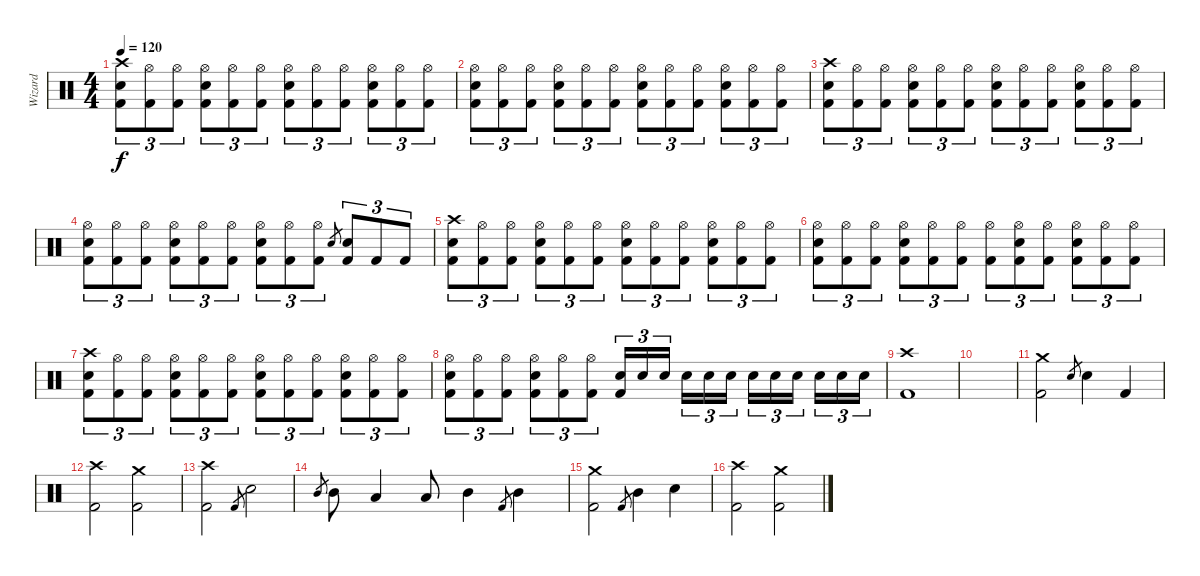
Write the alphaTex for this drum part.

\track ("Wizard" "Wizard") {instrument percussion}
\staff {score}
\articulation defaults
\ts (4 4)
\tempo 120
\clef neutral
\ks c
("Crash high (hit)" "Snare (hit) 2" "Kick (hit) 2").8{tu (3 2) dy f} ("Hi-Hat (open)" "Kick (hit) 2").8{tu (3 2)} ("Hi-Hat (open)" "Kick (hit) 2").8{tu (3 2)} ("Hi-Hat (open)" "Snare (hit) 2" "Kick (hit) 2").8{tu (3 2)} ("Hi-Hat (open)" "Kick (hit) 2").8{tu (3 2)} ("Hi-Hat (open)" "Kick (hit) 2").8{tu (3 2)} ("Hi-Hat (open)" "Snare (hit) 2" "Kick (hit) 2").8{tu (3 2)} ("Hi-Hat (open)" "Kick (hit) 2").8{tu (3 2)} ("Hi-Hat (open)" "Kick (hit) 2").8{tu (3 2)} ("Hi-Hat (open)" "Snare (hit) 2" "Kick (hit) 2").8{tu (3 2)} ("Hi-Hat (open)" "Kick (hit) 2").8{tu (3 2)} ("Hi-Hat (open)" "Kick (hit) 2").8{tu (3 2)} |
("Hi-Hat (open)" "Snare (hit) 2" "Kick (hit) 2").8{tu (3 2)} ("Hi-Hat (open)" "Kick (hit) 2").8{tu (3 2)} ("Hi-Hat (open)" "Kick (hit) 2").8{tu (3 2)} ("Hi-Hat (open)" "Snare (hit) 2" "Kick (hit) 2").8{tu (3 2)} ("Hi-Hat (open)" "Kick (hit) 2").8{tu (3 2)} ("Hi-Hat (open)" "Kick (hit) 2").8{tu (3 2)} ("Hi-Hat (open)" "Snare (hit) 2" "Kick (hit) 2").8{tu (3 2)} ("Hi-Hat (open)" "Kick (hit) 2").8{tu (3 2)} ("Hi-Hat (open)" "Kick (hit) 2").8{tu (3 2)} ("Hi-Hat (open)" "Snare (hit) 2" "Kick (hit) 2").8{tu (3 2)} ("Hi-Hat (open)" "Kick (hit) 2").8{tu (3 2)} ("Hi-Hat (open)" "Kick (hit) 2").8{tu (3 2)} |
("Crash high (hit)" "Snare (hit) 2" "Kick (hit) 2").8{tu (3 2)} ("Hi-Hat (open)" "Kick (hit) 2").8{tu (3 2)} ("Hi-Hat (open)" "Kick (hit) 2").8{tu (3 2)} ("Hi-Hat (open)" "Snare (hit) 2" "Kick (hit) 2").8{tu (3 2)} ("Hi-Hat (open)" "Kick (hit) 2").8{tu (3 2)} ("Hi-Hat (open)" "Kick (hit) 2").8{tu (3 2)} ("Hi-Hat (open)" "Snare (hit) 2" "Kick (hit) 2").8{tu (3 2)} ("Hi-Hat (open)" "Kick (hit) 2").8{tu (3 2)} ("Hi-Hat (open)" "Kick (hit) 2").8{tu (3 2)} ("Hi-Hat (open)" "Snare (hit) 2" "Kick (hit) 2").8{tu (3 2)} ("Hi-Hat (open)" "Kick (hit) 2").8{tu (3 2)} ("Hi-Hat (open)" "Kick (hit) 2").8{tu (3 2)} |
("Hi-Hat (open)" "Snare (hit) 2" "Kick (hit) 2").8{tu (3 2)} ("Hi-Hat (open)" "Kick (hit) 2").8{tu (3 2)} ("Hi-Hat (open)" "Kick (hit) 2").8{tu (3 2)} ("Hi-Hat (open)" "Snare (hit) 2" "Kick (hit) 2").8{tu (3 2)} ("Hi-Hat (open)" "Kick (hit) 2").8{tu (3 2)} ("Hi-Hat (open)" "Kick (hit) 2").8{tu (3 2)} ("Hi-Hat (open)" "Snare (hit) 2" "Kick (hit) 2").8{tu (3 2)} ("Hi-Hat (open)" "Kick (hit) 2").8{tu (3 2)} ("Hi-Hat (open)" "Kick (hit) 2").8{tu (3 2)} "Snare (hit) 2".8{gr} ("Snare (hit) 2" "Kick (hit) 2").8{tu (3 2)} "Kick (hit) 2".8{tu (3 2)} "Kick (hit) 2".8{tu (3 2)} |
("Crash high (hit)" "Snare (hit) 2" "Kick (hit) 2").8{tu (3 2)} ("Hi-Hat (open)" "Kick (hit) 2").8{tu (3 2)} ("Hi-Hat (open)" "Kick (hit) 2").8{tu (3 2)} ("Hi-Hat (open)" "Snare (hit) 2" "Kick (hit) 2").8{tu (3 2)} ("Hi-Hat (open)" "Kick (hit) 2").8{tu (3 2)} ("Hi-Hat (open)" "Kick (hit) 2").8{tu (3 2)} ("Hi-Hat (open)" "Snare (hit) 2" "Kick (hit) 2").8{tu (3 2)} ("Hi-Hat (open)" "Kick (hit) 2").8{tu (3 2)} ("Hi-Hat (open)" "Kick (hit) 2").8{tu (3 2)} ("Hi-Hat (open)" "Snare (hit) 2" "Kick (hit) 2").8{tu (3 2)} ("Hi-Hat (open)" "Kick (hit) 2").8{tu (3 2)} ("Hi-Hat (open)" "Kick (hit) 2").8{tu (3 2)} |
("Hi-Hat (open)" "Snare (hit) 2" "Kick (hit) 2").8{tu (3 2)} ("Hi-Hat (open)" "Kick (hit) 2").8{tu (3 2)} ("Hi-Hat (open)" "Kick (hit) 2").8{tu (3 2)} ("Hi-Hat (open)" "Snare (hit) 2" "Kick (hit) 2").8{tu (3 2)} ("Hi-Hat (open)" "Kick (hit) 2").8{tu (3 2)} ("Hi-Hat (open)" "Kick (hit) 2").8{tu (3 2)} ("Hi-Hat (open)" "Kick (hit) 2").8{tu (3 2)} ("Hi-Hat (open)" "Snare (hit) 2" "Kick (hit) 2").8{tu (3 2)} ("Hi-Hat (open)" "Kick (hit) 2").8{tu (3 2)} ("Hi-Hat (open)" "Snare (hit) 2" "Kick (hit) 2").8{tu (3 2)} ("Hi-Hat (open)" "Kick (hit) 2").8{tu (3 2)} ("Hi-Hat (open)" "Kick (hit) 2").8{tu (3 2)} |
("Crash high (hit)" "Snare (hit) 2" "Kick (hit) 2").8{tu (3 2)} ("Hi-Hat (open)" "Kick (hit) 2").8{tu (3 2)} ("Hi-Hat (open)" "Kick (hit) 2").8{tu (3 2)} ("Hi-Hat (open)" "Snare (hit) 2" "Kick (hit) 2").8{tu (3 2)} ("Hi-Hat (open)" "Kick (hit) 2").8{tu (3 2)} ("Hi-Hat (open)" "Kick (hit) 2").8{tu (3 2)} ("Hi-Hat (open)" "Snare (hit) 2" "Kick (hit) 2").8{tu (3 2)} ("Hi-Hat (open)" "Kick (hit) 2").8{tu (3 2)} ("Hi-Hat (open)" "Kick (hit) 2").8{tu (3 2)} ("Hi-Hat (open)" "Snare (hit) 2" "Kick (hit) 2").8{tu (3 2)} ("Hi-Hat (open)" "Kick (hit) 2").8{tu (3 2)} ("Hi-Hat (open)" "Kick (hit) 2").8{tu (3 2)} |
("Hi-Hat (open)" "Snare (hit) 2" "Kick (hit) 2").8{tu (3 2)} ("Hi-Hat (open)" "Kick (hit) 2").8{tu (3 2)} ("Hi-Hat (open)" "Kick (hit) 2").8{tu (3 2)} ("Hi-Hat (open)" "Snare (hit) 2" "Kick (hit) 2").8{tu (3 2)} ("Hi-Hat (open)" "Kick (hit) 2").8{tu (3 2)} ("Hi-Hat (open)" "Kick (hit) 2").8{tu (3 2)} ("Snare (hit) 2" "Kick (hit) 2").16{tu (3 2)} "Snare (hit) 2".16{tu (3 2)} "Snare (hit) 2".16{tu (3 2) beam splitsecondary} "Snare (hit) 2".16{tu (3 2)} "Snare (hit) 2".16{tu (3 2)} "Snare (hit) 2".16{tu (3 2)} "Snare (hit) 2".16{tu (3 2)} "Snare (hit) 2".16{tu (3 2)} "Snare (hit) 2".16{tu (3 2) beam splitsecondary} "Snare (hit) 2".16{tu (3 2)} "Snare (hit) 2".16{tu (3 2)} "Snare (hit) 2".16{tu (3 2)} |
("Crash high (hit)" "Kick (hit) 2").1 |
|
("Crash medium (hit)" "Kick (hit) 2").2 "Snare (hit) 2".8{gr} "Snare (hit) 2".4 "Kick (hit) 2".4 |
("Crash high (hit)" "Kick (hit) 2").2 ("Crash medium (hit)" "Kick (hit) 2").2 |
("Crash high (hit)" "Kick (hit) 2").2 "Kick (hit) 2".8{gr} "Snare (hit) 2".2 |
"Mid Tom (hit)".8{gr} "Mid Tom (hit)".8 "Low Tom (hit)".4 "Low Tom (hit)".8 "Mid Tom (hit)".4 "Kick (hit) 2".8{gr} "Mid Tom (hit)".4 |
("Crash medium (hit)" "Kick (hit) 2").2 "Kick (hit) 2".8{gr} "Mid Tom (hit)".4 "Snare (hit) 2".4 |
("Crash high (hit)" "Kick (hit) 2").2 ("Crash medium (hit)" "Kick (hit) 2").2
